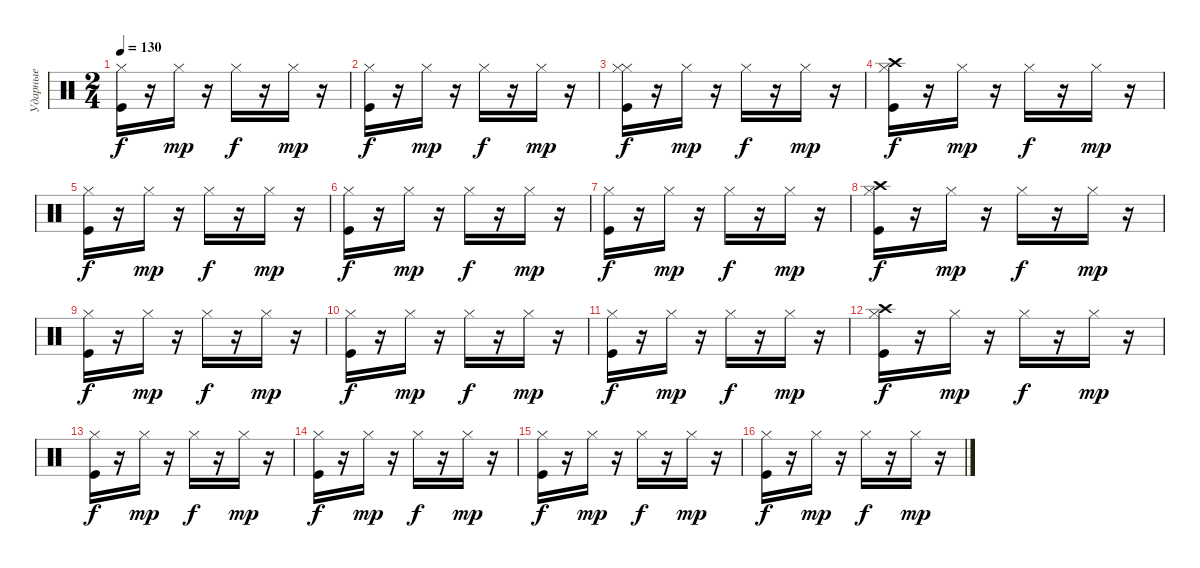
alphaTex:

\track ("Ударные" "Ударные") {instrument percussion}
\staff {score}
\articulation defaults
\ts (2 4)
\tempo 130
\clef neutral
\ks c
("Kick (hit)" "Hi-Hat (closed)").16{dy f} r.16 "Hi-Hat (closed)".16{dy mp} r.16 "Hi-Hat (closed)".16{dy f} r.16 "Hi-Hat (closed)".16{dy mp} r.16 |
("Kick (hit)" "Hi-Hat (closed)").16{dy f} r.16 "Hi-Hat (closed)".16{dy mp} r.16 "Hi-Hat (closed)".16{dy f} r.16 "Hi-Hat (closed)".16{dy mp} r.16 |
("Kick (hit)" "Hi-Hat (closed)" "Hi-Hat (closed)").16{dy f} r.16 "Hi-Hat (closed)".16{dy mp} r.16 "Hi-Hat (closed)".16{dy f} r.16 "Hi-Hat (closed)".16{dy mp} r.16 |
("Kick (hit)" "Hi-Hat (closed)" "Crash high (hit)").16{dy f} r.16 "Hi-Hat (closed)".16{dy mp} r.16 "Hi-Hat (closed)".16{dy f} r.16 "Hi-Hat (closed)".16{dy mp} r.16 |
("Kick (hit)" "Hi-Hat (closed)").16{dy f} r.16 "Hi-Hat (closed)".16{dy mp} r.16 "Hi-Hat (closed)".16{dy f} r.16 "Hi-Hat (closed)".16{dy mp} r.16 |
("Kick (hit)" "Hi-Hat (closed)").16{dy f} r.16 "Hi-Hat (closed)".16{dy mp} r.16 "Hi-Hat (closed)".16{dy f} r.16 "Hi-Hat (closed)".16{dy mp} r.16 |
("Kick (hit)" "Hi-Hat (closed)").16{dy f} r.16 "Hi-Hat (closed)".16{dy mp} r.16 "Hi-Hat (closed)".16{dy f} r.16 "Hi-Hat (closed)".16{dy mp} r.16 |
("Kick (hit)" "Hi-Hat (closed)" "Crash high (hit)").16{dy f} r.16 "Hi-Hat (closed)".16{dy mp} r.16 "Hi-Hat (closed)".16{dy f} r.16 "Hi-Hat (closed)".16{dy mp} r.16 |
("Kick (hit)" "Hi-Hat (closed)").16{dy f} r.16 "Hi-Hat (closed)".16{dy mp} r.16 "Hi-Hat (closed)".16{dy f} r.16 "Hi-Hat (closed)".16{dy mp} r.16 |
("Kick (hit)" "Hi-Hat (closed)").16{dy f} r.16 "Hi-Hat (closed)".16{dy mp} r.16 "Hi-Hat (closed)".16{dy f} r.16 "Hi-Hat (closed)".16{dy mp} r.16 |
("Kick (hit)" "Hi-Hat (closed)").16{dy f} r.16 "Hi-Hat (closed)".16{dy mp} r.16 "Hi-Hat (closed)".16{dy f} r.16 "Hi-Hat (closed)".16{dy mp} r.16 |
("Kick (hit)" "Hi-Hat (closed)" "Crash high (hit)").16{dy f} r.16 "Hi-Hat (closed)".16{dy mp} r.16 "Hi-Hat (closed)".16{dy f} r.16 "Hi-Hat (closed)".16{dy mp} r.16 |
("Kick (hit)" "Hi-Hat (closed)").16{dy f} r.16 "Hi-Hat (closed)".16{dy mp} r.16 "Hi-Hat (closed)".16{dy f} r.16 "Hi-Hat (closed)".16{dy mp} r.16 |
("Kick (hit)" "Hi-Hat (closed)").16{dy f} r.16 "Hi-Hat (closed)".16{dy mp} r.16 "Hi-Hat (closed)".16{dy f} r.16 "Hi-Hat (closed)".16{dy mp} r.16 |
("Kick (hit)" "Hi-Hat (closed)").16{dy f} r.16 "Hi-Hat (closed)".16{dy mp} r.16 "Hi-Hat (closed)".16{dy f} r.16 "Hi-Hat (closed)".16{dy mp} r.16 |
("Kick (hit)" "Hi-Hat (closed)").16{dy f} r.16 "Hi-Hat (closed)".16{dy mp} r.16 "Hi-Hat (closed)".16{dy f} r.16 "Hi-Hat (closed)".16{dy mp} r.16
